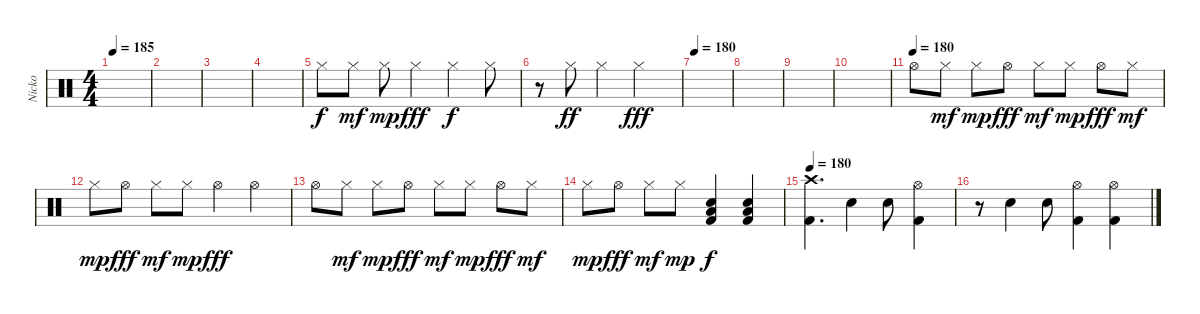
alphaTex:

\track ("Nicko" "Nicko") {instrument percussion}
\staff {score}
\articulation defaults
\ts (4 4)
\tempo 185
\clef neutral
\ks c
|
|
|
|
"Hi-Hat (closed)".8 "Hi-Hat (closed)".8{dy mf} "Hi-Hat (closed)".8{dy mp} "Hi-Hat (closed)".4{dy fff} "Hi-Hat (closed)".4{dy f} "Hi-Hat (closed)".8 |
r.8 "Hi-Hat (closed)".8{dy ff} "Hi-Hat (closed)".4 "Hi-Hat (closed)".2{dy fff} |
\tempo 180
|
|
|
|
\tempo (180)
"Hi-Hat (open)".8 "Hi-Hat (closed)".8{dy mf} "Hi-Hat (closed)".8{dy mp} "Hi-Hat (open)".8{dy fff} "Hi-Hat (closed)".8{dy mf} "Hi-Hat (closed)".8{dy mp} "Hi-Hat (open)".8{dy fff} "Hi-Hat (closed)".8{dy mf} |
"Hi-Hat (closed)".8{dy mp} "Hi-Hat (open)".8{dy fff} "Hi-Hat (closed)".8{dy mf} "Hi-Hat (closed)".8{dy mp} "Hi-Hat (open)".4{dy fff} "Hi-Hat (open)".4 |
"Hi-Hat (open)".8 "Hi-Hat (closed)".8{dy mf} "Hi-Hat (closed)".8{dy mp} "Hi-Hat (open)".8{dy fff} "Hi-Hat (closed)".8{dy mf} "Hi-Hat (closed)".8{dy mp} "Hi-Hat (open)".8{dy fff} "Hi-Hat (closed)".8{dy mf} |
"Hi-Hat (closed)".8{dy mp} "Hi-Hat (open)".8{dy fff} "Hi-Hat (closed)".8{dy mf} "Hi-Hat (closed)".8{dy mp} ("Low Tom (hit)" "Snare (hit) 2" "Kick (hit) 2").4{dy f} ("Low Tom (hit)" "Snare (hit) 2" "Kick (hit) 2").4 |
\tempo 180
("Crash high (hit)" "Kick (hit) 2").4{d} "Snare (hit) 2".4 "Snare (hit) 2".8 ("Hi-Hat (open)" "Kick (hit) 2").4 |
r.8 "Snare (hit) 2".4 "Snare (hit) 2".8 ("Hi-Hat (open)" "Kick (hit) 2").4 ("Hi-Hat (open)" "Kick (hit) 2").4
